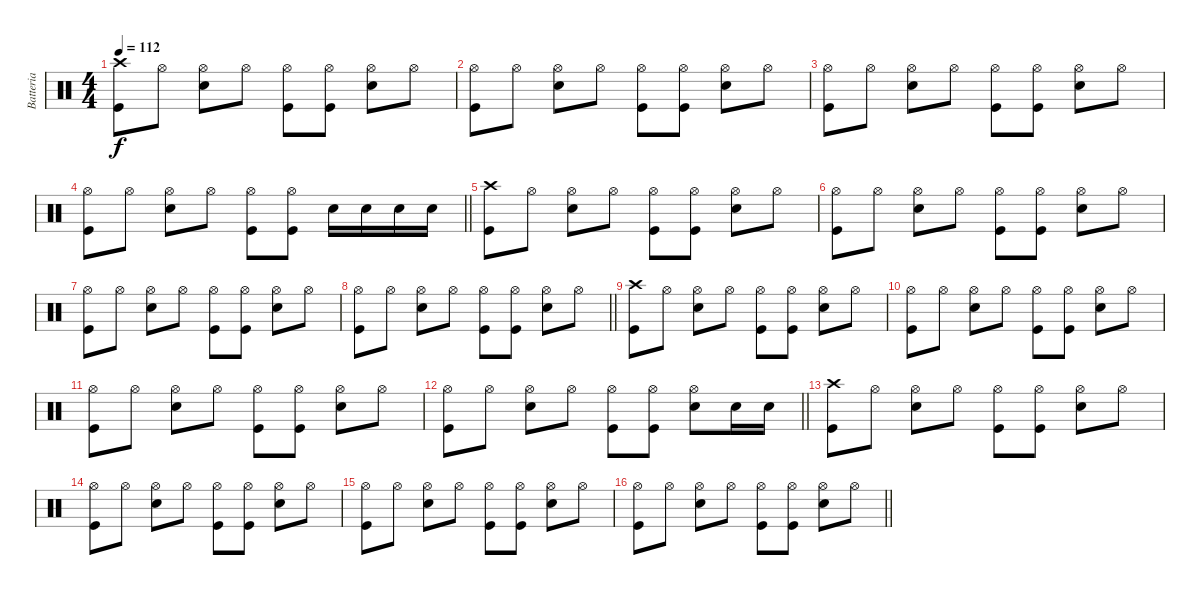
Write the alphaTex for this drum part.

\track ("Batteria" "Batteria") {instrument percussion}
\staff {score}
\articulation defaults
\ts (4 4)
\tempo 112
\clef neutral
\ks c
("Kick (hit)" "Crash high (hit)").8{dy f} "Hi-Hat (open)".8 ("Snare (hit) 2" "Hi-Hat (open)").8 "Hi-Hat (open)".8 ("Kick (hit)" "Hi-Hat (open)").8 ("Kick (hit)" "Hi-Hat (open)").8 ("Snare (hit) 2" "Hi-Hat (open)").8 "Hi-Hat (open)".8 |
("Kick (hit)" "Hi-Hat (open)").8 "Hi-Hat (open)".8 ("Snare (hit) 2" "Hi-Hat (open)").8 "Hi-Hat (open)".8 ("Kick (hit)" "Hi-Hat (open)").8 ("Kick (hit)" "Hi-Hat (open)").8 ("Snare (hit) 2" "Hi-Hat (open)").8 "Hi-Hat (open)".8 |
("Kick (hit)" "Hi-Hat (open)").8 "Hi-Hat (open)".8 ("Snare (hit) 2" "Hi-Hat (open)").8 "Hi-Hat (open)".8 ("Kick (hit)" "Hi-Hat (open)").8 ("Kick (hit)" "Hi-Hat (open)").8 ("Snare (hit) 2" "Hi-Hat (open)").8 "Hi-Hat (open)".8 |
\barLineRight lightlight
("Kick (hit)" "Hi-Hat (open)").8 "Hi-Hat (open)".8 ("Snare (hit) 2" "Hi-Hat (open)").8 "Hi-Hat (open)".8 ("Kick (hit)" "Hi-Hat (open)").8 ("Kick (hit)" "Hi-Hat (open)").8 "Snare (hit) 2".16 "Snare (hit) 2".16 "Snare (hit) 2".16 "Snare (hit) 2".16 |
("Kick (hit)" "Crash high (hit)").8 "Hi-Hat (open)".8 ("Snare (hit) 2" "Hi-Hat (open)").8 "Hi-Hat (open)".8 ("Kick (hit)" "Hi-Hat (open)").8 ("Kick (hit)" "Hi-Hat (open)").8 ("Snare (hit) 2" "Hi-Hat (open)").8 "Hi-Hat (open)".8 |
("Kick (hit)" "Hi-Hat (open)").8 "Hi-Hat (open)".8 ("Snare (hit) 2" "Hi-Hat (open)").8 "Hi-Hat (open)".8 ("Kick (hit)" "Hi-Hat (open)").8 ("Kick (hit)" "Hi-Hat (open)").8 ("Snare (hit) 2" "Hi-Hat (open)").8 "Hi-Hat (open)".8 |
("Kick (hit)" "Hi-Hat (open)").8 "Hi-Hat (open)".8 ("Snare (hit) 2" "Hi-Hat (open)").8 "Hi-Hat (open)".8 ("Kick (hit)" "Hi-Hat (open)").8 ("Kick (hit)" "Hi-Hat (open)").8 ("Snare (hit) 2" "Hi-Hat (open)").8 "Hi-Hat (open)".8 |
\barLineRight lightlight
("Kick (hit)" "Hi-Hat (open)").8 "Hi-Hat (open)".8 ("Snare (hit) 2" "Hi-Hat (open)").8 "Hi-Hat (open)".8 ("Kick (hit)" "Hi-Hat (open)").8 ("Kick (hit)" "Hi-Hat (open)").8 ("Snare (hit) 2" "Hi-Hat (open)").8 "Hi-Hat (open)".8 |
("Kick (hit)" "Crash high (hit)").8 "Hi-Hat (open)".8 ("Snare (hit) 2" "Hi-Hat (open)").8 "Hi-Hat (open)".8 ("Kick (hit)" "Hi-Hat (open)").8 ("Kick (hit)" "Hi-Hat (open)").8 ("Snare (hit) 2" "Hi-Hat (open)").8 "Hi-Hat (open)".8 |
("Kick (hit)" "Hi-Hat (open)").8 "Hi-Hat (open)".8 ("Snare (hit) 2" "Hi-Hat (open)").8 "Hi-Hat (open)".8 ("Kick (hit)" "Hi-Hat (open)").8 ("Kick (hit)" "Hi-Hat (open)").8 ("Snare (hit) 2" "Hi-Hat (open)").8 "Hi-Hat (open)".8 |
("Kick (hit)" "Hi-Hat (open)").8 "Hi-Hat (open)".8 ("Snare (hit) 2" "Hi-Hat (open)").8 "Hi-Hat (open)".8 ("Kick (hit)" "Hi-Hat (open)").8 ("Kick (hit)" "Hi-Hat (open)").8 ("Snare (hit) 2" "Hi-Hat (open)").8 "Hi-Hat (open)".8 |
\barLineRight lightlight
("Kick (hit)" "Hi-Hat (open)").8 "Hi-Hat (open)".8 ("Snare (hit) 2" "Hi-Hat (open)").8 "Hi-Hat (open)".8 ("Kick (hit)" "Hi-Hat (open)").8 ("Kick (hit)" "Hi-Hat (open)").8 ("Snare (hit) 2" "Hi-Hat (open)").8 "Snare (hit) 2".16 "Snare (hit) 2".16 |
("Kick (hit)" "Crash high (hit)").8 "Hi-Hat (open)".8 ("Snare (hit) 2" "Hi-Hat (open)").8 "Hi-Hat (open)".8 ("Kick (hit)" "Hi-Hat (open)").8 ("Kick (hit)" "Hi-Hat (open)").8 ("Snare (hit) 2" "Hi-Hat (open)").8 "Hi-Hat (open)".8 |
("Kick (hit)" "Hi-Hat (open)").8 "Hi-Hat (open)".8 ("Snare (hit) 2" "Hi-Hat (open)").8 "Hi-Hat (open)".8 ("Kick (hit)" "Hi-Hat (open)").8 ("Kick (hit)" "Hi-Hat (open)").8 ("Snare (hit) 2" "Hi-Hat (open)").8 "Hi-Hat (open)".8 |
("Kick (hit)" "Hi-Hat (open)").8 "Hi-Hat (open)".8 ("Snare (hit) 2" "Hi-Hat (open)").8 "Hi-Hat (open)".8 ("Kick (hit)" "Hi-Hat (open)").8 ("Kick (hit)" "Hi-Hat (open)").8 ("Snare (hit) 2" "Hi-Hat (open)").8 "Hi-Hat (open)".8 |
\barLineRight lightlight
("Kick (hit)" "Hi-Hat (open)").8 "Hi-Hat (open)".8 ("Snare (hit) 2" "Hi-Hat (open)").8 "Hi-Hat (open)".8 ("Kick (hit)" "Hi-Hat (open)").8 ("Kick (hit)" "Hi-Hat (open)").8 ("Snare (hit) 2" "Hi-Hat (open)").8 "Hi-Hat (open)".8
